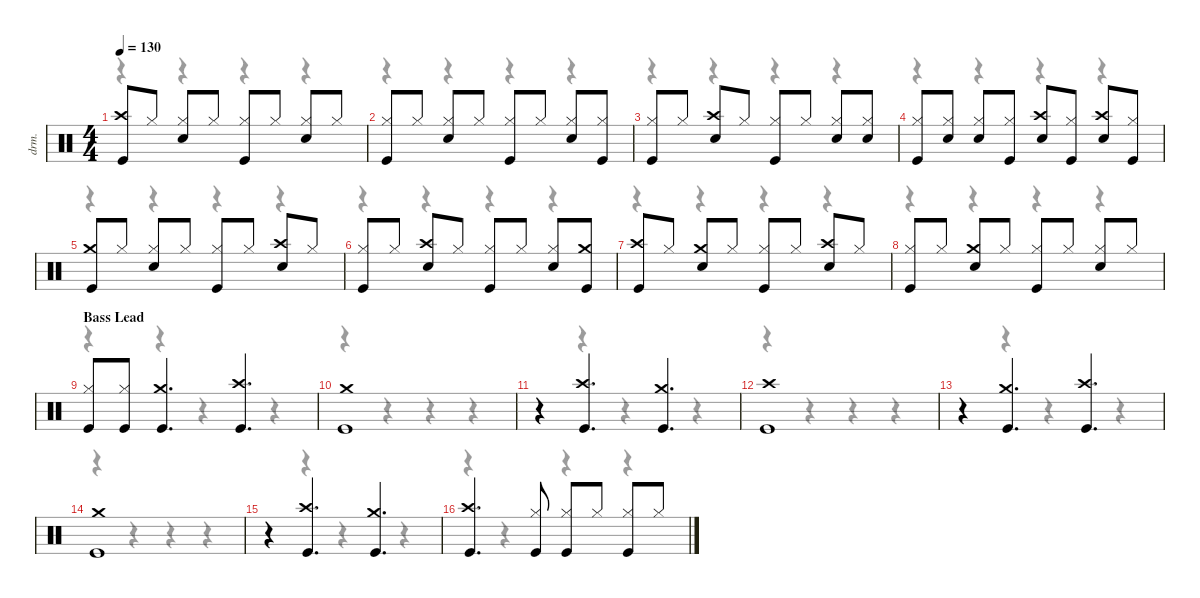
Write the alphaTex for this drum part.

\defaultSystemsLayout 4
\hideDynamics
\bracketExtendMode nobrackets
\track ("Lars Ulrich - Drums" "drm.") {instrument percussion}
\staff {score}
\articulation defaults
\voice
\ts (4 4)
\tempo 130
\clef neutral
\ks c
("Crash high (hit)" "Kick (hit)").8{dy f} "Hi-Hat (closed)".8 ("Hi-Hat (closed)" "Snare (hit) 2").8 "Hi-Hat (closed)".8 ("Hi-Hat (closed)" "Kick (hit)").8 "Hi-Hat (closed)".8 ("Hi-Hat (closed)" "Snare (hit) 2").8 "Hi-Hat (closed)".8 |
("Hi-Hat (closed)" "Kick (hit)").8 "Hi-Hat (closed)".8 ("Hi-Hat (closed)" "Snare (hit) 2").8 "Hi-Hat (closed)".8 ("Hi-Hat (closed)" "Kick (hit)").8 "Hi-Hat (closed)".8 ("Hi-Hat (closed)" "Snare (hit) 2").8 ("Hi-Hat (closed)" "Kick (hit)").8 |
("Hi-Hat (closed)" "Kick (hit)").8 "Hi-Hat (closed)".8 ("Crash high (hit)" "Snare (hit) 2").8 "Hi-Hat (closed)".8 ("Hi-Hat (closed)" "Kick (hit)").8 "Hi-Hat (closed)".8 ("Hi-Hat (closed)" "Snare (hit) 2").8 ("Hi-Hat (closed)" "Snare (hit) 2").8 |
("Hi-Hat (closed)" "Kick (hit)").8 ("Hi-Hat (closed)" "Snare (hit) 2").8 ("Hi-Hat (closed)" "Snare (hit) 2").8 ("Hi-Hat (closed)" "Kick (hit)").8 ("Crash high (hit)" "Snare (hit) 2").8 ("Hi-Hat (closed)" "Kick (hit)").8 ("Crash high (hit)" "Snare (hit) 2").8 ("Hi-Hat (closed)" "Kick (hit)").8 |
("Crash medium (hit)" "Kick (hit)").8 "Hi-Hat (closed)".8 ("Hi-Hat (closed)" "Snare (hit) 2").8 "Hi-Hat (closed)".8 ("Hi-Hat (closed)" "Kick (hit)").8 "Hi-Hat (closed)".8 ("Crash high (hit)" "Snare (hit) 2").8 "Hi-Hat (closed)".8 |
("Hi-Hat (closed)" "Kick (hit)").8 "Hi-Hat (closed)".8 ("Crash high (hit)" "Snare (hit) 2").8 "Hi-Hat (closed)".8 ("Hi-Hat (closed)" "Kick (hit)").8 "Hi-Hat (closed)".8 ("Hi-Hat (closed)" "Snare (hit) 2").8 ("Crash medium (hit)" "Kick (hit)").8 |
("Crash high (hit)" "Kick (hit)").8 "Hi-Hat (closed)".8 ("Crash medium (hit)" "Snare (hit) 2").8 "Hi-Hat (closed)".8 ("Hi-Hat (closed)" "Kick (hit)").8 "Hi-Hat (closed)".8 ("Crash high (hit)" "Snare (hit) 2").8 "Hi-Hat (closed)".8 |
("Hi-Hat (closed)" "Kick (hit)").8 "Hi-Hat (closed)".8 ("Crash medium (hit)" "Snare (hit) 2").8 "Hi-Hat (closed)".8 ("Hi-Hat (closed)" "Kick (hit)").8 "Hi-Hat (closed)".8 ("Hi-Hat (closed)" "Snare (hit) 2").8 "Hi-Hat (closed)".8 |
\section ("" "Bass Lead")
("Hi-Hat (closed)" "Kick (hit)").8 ("Hi-Hat (closed)" "Kick (hit)").8 ("Crash medium (hit)" "Kick (hit)").4{d} ("Crash high (hit)" "Kick (hit)").4{d} |
("Crash medium (hit)" "Kick (hit)").1 |
r.4 ("Crash high (hit)" "Kick (hit)").4{d} ("Crash medium (hit)" "Kick (hit)").4{d} |
("Crash high (hit)" "Kick (hit)").1 |
r.4 ("Crash medium (hit)" "Kick (hit)").4{d} ("Crash high (hit)" "Kick (hit)").4{d} |
("Crash medium (hit)" "Kick (hit)").1 |
r.4 ("Crash high (hit)" "Kick (hit)").4{d} ("Crash medium (hit)" "Kick (hit)").4{d} |
("Crash high (hit)" "Kick (hit)").4{d} ("Hi-Hat (closed)" "Kick (hit)").8 ("Hi-Hat (closed)" "Kick (hit)").8 "Hi-Hat (closed)".8 ("Hi-Hat (closed)" "Kick (hit)").8 "Hi-Hat (closed)".8
\voice
\clef neutral
\ottava regular
\simile none
\ks c
r.4{dy mf} r.4 r.4 r.4 |
r.4 r.4 r.4 r.4 |
r.4 r.4 r.4 r.4 |
r.4 r.4 r.4 r.4 |
r.4 r.4 r.4 r.4 |
r.4 r.4 r.4 r.4 |
r.4 r.4 r.4 r.4 |
r.4 r.4 r.4 r.4 |
r.4 r.4 r.4 r.4 |
r.4 r.4 r.4 r.4 |
r.4 r.4 r.4 r.4 |
r.4 r.4 r.4 r.4 |
r.4 r.4 r.4 r.4 |
r.4 r.4 r.4 r.4 |
r.4 r.4 r.4 r.4 |
r.4 r.4 r.4 r.4
